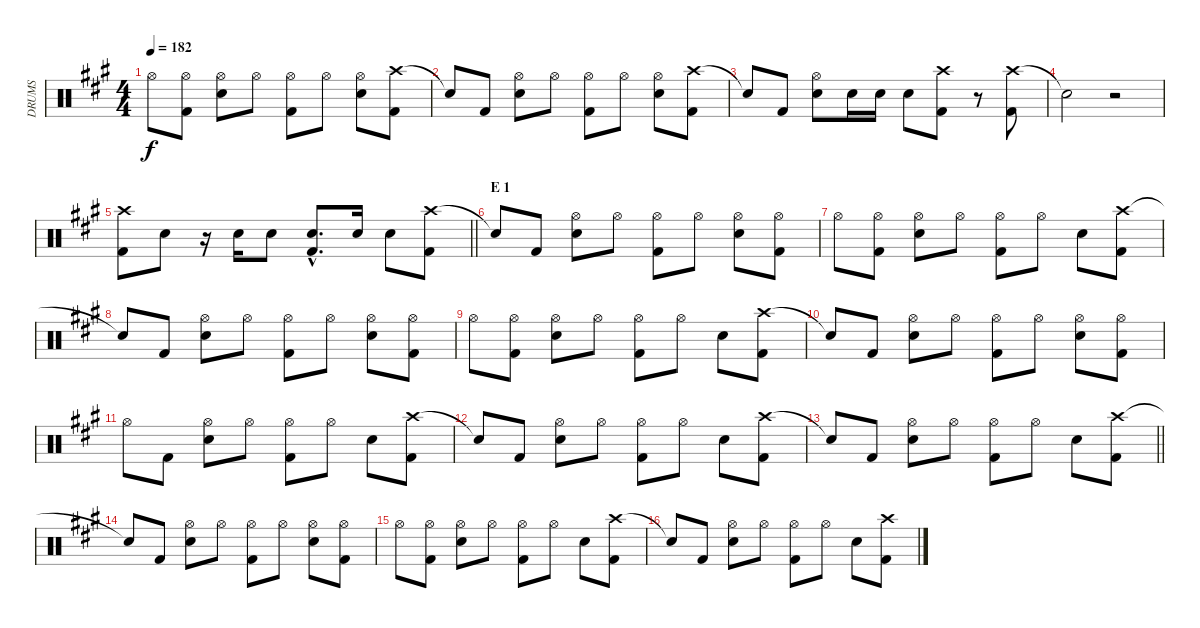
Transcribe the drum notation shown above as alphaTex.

\track ("DRUMS" "DRUMS") {instrument percussion}
\staff {score}
\articulation defaults
\ts (4 4)
\tempo 182
\clef neutral
\ks a "Hi-Hat (open)".8{dy f}
("Hi-Hat (open)" "Kick (hit) 2").8 ("Hi-Hat (open)" "Snare (hit) 2").8 "Hi-Hat (open)".8 ("Hi-Hat (open)" "Kick (hit) 2").8 "Hi-Hat (open)".8 ("Hi-Hat (open)" "Snare (hit) 2").8 ("Crash high (hit)" "Kick (hit) 2").8 |
"Snare (hit)"{t}.8 "Kick (hit) 2".8 ("Hi-Hat (open)" "Snare (hit) 2").8 "Hi-Hat (open)".8 ("Hi-Hat (open)" "Kick (hit) 2").8 "Hi-Hat (open)".8 ("Hi-Hat (open)" "Snare (hit) 2").8 ("Crash high (hit)" "Kick (hit) 2").8 |
"Snare (hit)"{t}.8 "Kick (hit) 2".8 ("Hi-Hat (open)" "Snare (hit) 2").8 "Snare (hit) 2".16 "Snare (hit) 2".16 "Snare (hit) 2".8 ("Crash high (hit)" "Kick (hit) 2").8 r.8 ("Crash high (hit)" "Kick (hit) 2").8 |
"Snare (hit)"{t}.2 r.2 |
\barLineRight lightlight
("Crash high (hit)" "Kick (hit) 2").8 "Snare (hit) 2".8 r.16 "Snare (hit) 2".16 "Snare (hit) 2".8 ("Snare (hit) 2"{hac} "Kick (hit) 2"{hac}).8{d} "Snare (hit) 2".16 "Snare (hit) 2".8 ("Crash high (hit)" "Kick (hit) 2").8 |
\section ("" "E 1")
"Snare (hit)"{t}.8 "Kick (hit) 2".8 ("Hi-Hat (open)" "Snare (hit) 2").8 "Hi-Hat (open)".8 ("Hi-Hat (open)" "Kick (hit) 2").8 "Hi-Hat (open)".8 ("Hi-Hat (open)" "Snare (hit) 2").8 ("Hi-Hat (open)" "Kick (hit) 2").8 |
"Hi-Hat (open)".8 ("Hi-Hat (open)" "Kick (hit) 2").8 ("Hi-Hat (open)" "Snare (hit) 2").8 "Hi-Hat (open)".8 ("Hi-Hat (open)" "Kick (hit) 2").8 "Hi-Hat (open)".8 "Snare (hit) 2".8 ("Crash high (hit)" "Kick (hit) 2").8 |
"Snare (hit)"{t}.8 "Kick (hit) 2".8 ("Hi-Hat (open)" "Snare (hit) 2").8 "Hi-Hat (open)".8 ("Hi-Hat (open)" "Kick (hit) 2").8 "Hi-Hat (open)".8 ("Hi-Hat (open)" "Snare (hit) 2").8 ("Hi-Hat (open)" "Kick (hit) 2").8 |
"Hi-Hat (open)".8 ("Hi-Hat (open)" "Kick (hit) 2").8 ("Hi-Hat (open)" "Snare (hit) 2").8 "Hi-Hat (open)".8 ("Hi-Hat (open)" "Kick (hit) 2").8 "Hi-Hat (open)".8 "Snare (hit) 2".8 ("Crash high (hit)" "Kick (hit) 2").8 |
"Snare (hit)"{t}.8 "Kick (hit) 2".8 ("Hi-Hat (open)" "Snare (hit) 2").8 "Hi-Hat (open)".8 ("Hi-Hat (open)" "Kick (hit) 2").8 "Hi-Hat (open)".8 ("Hi-Hat (open)" "Snare (hit) 2").8 ("Hi-Hat (open)" "Kick (hit) 2").8 |
"Hi-Hat (open)".8 "Kick (hit) 2".8 ("Hi-Hat (open)" "Snare (hit) 2").8 "Hi-Hat (open)".8 ("Hi-Hat (open)" "Kick (hit) 2").8 "Hi-Hat (open)".8 "Snare (hit) 2".8 ("Crash high (hit)" "Kick (hit) 2").8 |
"Snare (hit)"{t}.8 "Kick (hit) 2".8 ("Hi-Hat (open)" "Snare (hit) 2").8 "Hi-Hat (open)".8 ("Hi-Hat (open)" "Kick (hit) 2").8 "Hi-Hat (open)".8 "Snare (hit) 2".8 ("Crash high (hit)" "Kick (hit) 2").8 |
\barLineRight lightlight "Snare (hit)"{t}.8 "Kick (hit) 2".8
("Hi-Hat (open)" "Snare (hit) 2").8 "Hi-Hat (open)".8 ("Hi-Hat (open)" "Kick (hit) 2").8 "Hi-Hat (open)".8 "Snare (hit) 2".8 ("Crash high (hit)" "Kick (hit) 2").8 |
"Snare (hit)"{t}.8 "Kick (hit) 2".8 ("Hi-Hat (open)" "Snare (hit) 2").8 "Hi-Hat (open)".8 ("Hi-Hat (open)" "Kick (hit) 2").8 "Hi-Hat (open)".8 ("Hi-Hat (open)" "Snare (hit) 2").8 ("Hi-Hat (open)" "Kick (hit) 2").8 |
"Hi-Hat (open)".8 ("Hi-Hat (open)" "Kick (hit) 2").8 ("Hi-Hat (open)" "Snare (hit) 2").8 "Hi-Hat (open)".8 ("Hi-Hat (open)" "Kick (hit) 2").8 "Hi-Hat (open)".8 "Snare (hit) 2".8 ("Crash high (hit)" "Kick (hit) 2").8 |
"Snare (hit)"{t}.8 "Kick (hit) 2".8 ("Hi-Hat (open)" "Snare (hit) 2").8 "Hi-Hat (open)".8 ("Hi-Hat (open)" "Kick (hit) 2").8 "Hi-Hat (open)".8 "Snare (hit) 2".8 ("Crash high (hit)" "Kick (hit) 2").8
